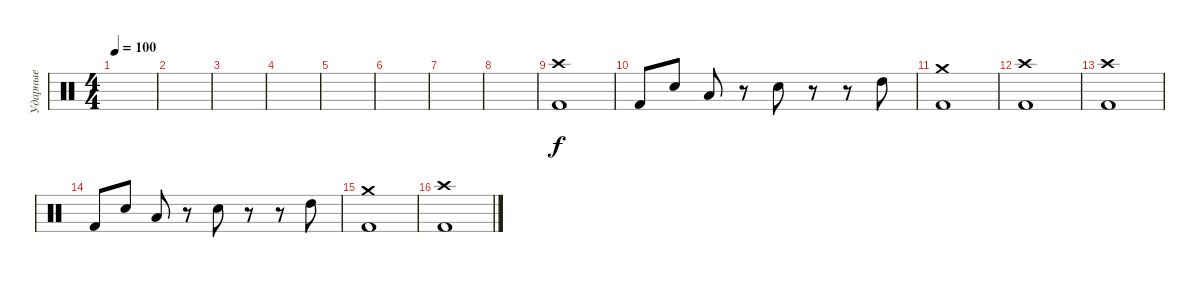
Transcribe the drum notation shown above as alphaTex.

\track ("Ударные" "Ударные") {instrument percussion}
\staff {score}
\articulation defaults
\ts (4 4)
\tempo 100
\clef neutral
\ks c
|
|
|
|
|
|
|
|
("Kick (hit) 2" "Crash high (hit)").1 |
"Kick (hit) 2".8 "Electric Snare (hit)".8 "Low Tom (hit)".8 r.8 "Electric Snare (hit)".8 r.8 r.8 "High Tom (hit)".8 |
("Kick (hit) 2" "Crash medium (hit)").1 |
("Kick (hit) 2" "Crash high (hit)").1 |
("Kick (hit) 2" "Crash high (hit)").1 |
"Kick (hit) 2".8 "Electric Snare (hit)".8 "Low Tom (hit)".8 r.8 "Electric Snare (hit)".8 r.8 r.8 "High Tom (hit)".8 |
("Kick (hit) 2" "Crash medium (hit)").1 |
("Kick (hit) 2" "Crash high (hit)").1
